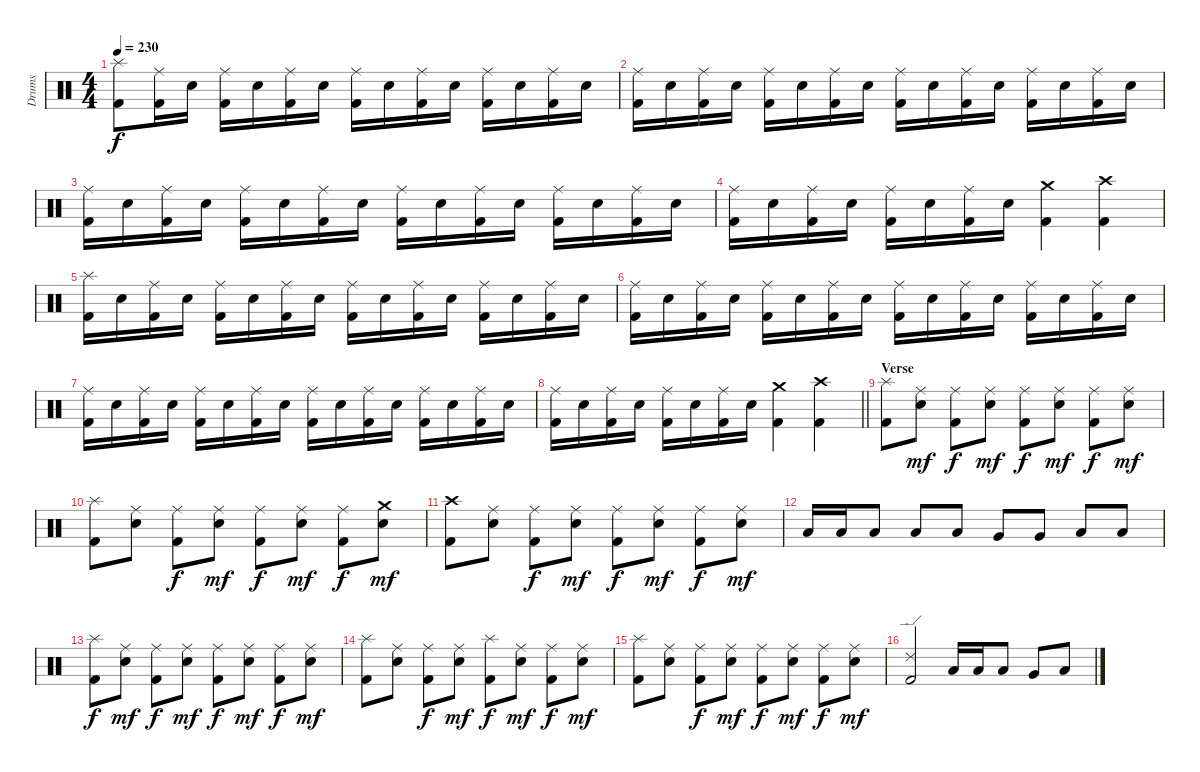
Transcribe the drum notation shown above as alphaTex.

\track ("Drums" "Drums") {instrument percussion}
\staff {score}
\articulation defaults
\ts (4 4)
\tempo 230
\clef neutral
\ks c
("Splash (hit)" "Kick (hit) 2").8{dy f} ("Ride (middle)" "Kick (hit) 2").16 "Snare (hit) 2".16 ("Ride (middle)" "Kick (hit) 2").16 "Snare (hit) 2".16 ("Ride (middle)" "Kick (hit) 2").16 "Snare (hit) 2".16 ("Ride (middle)" "Kick (hit) 2").16 "Snare (hit) 2".16 ("Ride (middle)" "Kick (hit) 2").16 "Snare (hit) 2".16 ("Ride (middle)" "Kick (hit) 2").16 "Snare (hit) 2".16 ("Ride (middle)" "Kick (hit) 2").16 "Snare (hit) 2".16 |
("Ride (middle)" "Kick (hit) 2").16 "Snare (hit) 2".16 ("Ride (middle)" "Kick (hit) 2").16 "Snare (hit) 2".16 ("Ride (middle)" "Kick (hit) 2").16 "Snare (hit) 2".16 ("Ride (middle)" "Kick (hit) 2").16 "Snare (hit) 2".16 ("Ride (middle)" "Kick (hit) 2").16 "Snare (hit) 2".16 ("Ride (middle)" "Kick (hit) 2").16 "Snare (hit) 2".16 ("Ride (middle)" "Kick (hit) 2").16 "Snare (hit) 2".16 ("Ride (middle)" "Kick (hit) 2").16 "Snare (hit) 2".16 |
("Ride (middle)" "Kick (hit) 2").16 "Snare (hit) 2".16 ("Ride (middle)" "Kick (hit) 2").16 "Snare (hit) 2".16 ("Ride (middle)" "Kick (hit) 2").16 "Snare (hit) 2".16 ("Ride (middle)" "Kick (hit) 2").16 "Snare (hit) 2".16 ("Ride (middle)" "Kick (hit) 2").16 "Snare (hit) 2".16 ("Ride (middle)" "Kick (hit) 2").16 "Snare (hit) 2".16 ("Ride (middle)" "Kick (hit) 2").16 "Snare (hit) 2".16 ("Ride (middle)" "Kick (hit) 2").16 "Snare (hit) 2".16 |
("Ride (middle)" "Kick (hit) 2").16 "Snare (hit) 2".16 ("Ride (middle)" "Kick (hit) 2").16 "Snare (hit) 2".16 ("Ride (middle)" "Kick (hit) 2").16 "Snare (hit) 2".16 ("Ride (middle)" "Kick (hit) 2").16 "Snare (hit) 2".16 ("Crash medium (hit)" "Kick (hit) 2").4 ("Crash high (hit)" "Kick (hit) 2").4 |
("Splash (hit)" "Kick (hit) 2").16 "Snare (hit) 2".16 ("Ride (middle)" "Kick (hit) 2").16 "Snare (hit) 2".16 ("Ride (middle)" "Kick (hit) 2").16 "Snare (hit) 2".16 ("Ride (middle)" "Kick (hit) 2").16 "Snare (hit) 2".16 ("Ride (middle)" "Kick (hit) 2").16 "Snare (hit) 2".16 ("Ride (middle)" "Kick (hit) 2").16 "Snare (hit) 2".16 ("Ride (middle)" "Kick (hit) 2").16 "Snare (hit) 2".16 ("Ride (middle)" "Kick (hit) 2").16 "Snare (hit) 2".16 |
("Ride (middle)" "Kick (hit) 2").16 "Snare (hit) 2".16 ("Ride (middle)" "Kick (hit) 2").16 "Snare (hit) 2".16 ("Ride (middle)" "Kick (hit) 2").16 "Snare (hit) 2".16 ("Ride (middle)" "Kick (hit) 2").16 "Snare (hit) 2".16 ("Ride (middle)" "Kick (hit) 2").16 "Snare (hit) 2".16 ("Ride (middle)" "Kick (hit) 2").16 "Snare (hit) 2".16 ("Ride (middle)" "Kick (hit) 2").16 "Snare (hit) 2".16 ("Ride (middle)" "Kick (hit) 2").16 "Snare (hit) 2".16 |
("Ride (middle)" "Kick (hit) 2").16 "Snare (hit) 2".16 ("Ride (middle)" "Kick (hit) 2").16 "Snare (hit) 2".16 ("Ride (middle)" "Kick (hit) 2").16 "Snare (hit) 2".16 ("Ride (middle)" "Kick (hit) 2").16 "Snare (hit) 2".16 ("Ride (middle)" "Kick (hit) 2").16 "Snare (hit) 2".16 ("Ride (middle)" "Kick (hit) 2").16 "Snare (hit) 2".16 ("Ride (middle)" "Kick (hit) 2").16 "Snare (hit) 2".16 ("Ride (middle)" "Kick (hit) 2").16 "Snare (hit) 2".16 |
\barLineRight lightlight
("Ride (middle)" "Kick (hit) 2").16 "Snare (hit) 2".16 ("Ride (middle)" "Kick (hit) 2").16 "Snare (hit) 2".16 ("Ride (middle)" "Kick (hit) 2").16 "Snare (hit) 2".16 ("Ride (middle)" "Kick (hit) 2").16 "Snare (hit) 2".16 ("Crash medium (hit)" "Kick (hit) 2").4 ("Crash high (hit)" "Kick (hit) 2").4 |
\section ("" "Verse")
("Splash (hit)" "Kick (hit) 2").8 ("Ride (middle)" "Snare (hit) 2").8{dy mf} ("Ride (middle)" "Kick (hit) 2").8{dy f} ("Ride (middle)" "Snare (hit) 2").8{dy mf} ("Ride (middle)" "Kick (hit) 2").8{dy f} ("Ride (middle)" "Snare (hit) 2").8{dy mf} ("Ride (middle)" "Kick (hit) 2").8{dy f} ("Ride (middle)" "Snare (hit) 2").8{dy mf} |
("Splash (hit)" "Kick (hit) 2").8 ("Ride (middle)" "Snare (hit) 2").8 ("Ride (middle)" "Kick (hit) 2").8{dy f} ("Ride (middle)" "Snare (hit) 2").8{dy mf} ("Ride (middle)" "Kick (hit) 2").8{dy f} ("Ride (middle)" "Snare (hit) 2").8{dy mf} ("Ride (middle)" "Kick (hit) 2").8{dy f} ("Crash medium (hit)" "Snare (hit) 2").8{dy mf} |
("Crash high (hit)" "Kick (hit) 2").8 ("Ride (middle)" "Snare (hit) 2").8 ("Ride (middle)" "Kick (hit) 2").8{dy f} ("Ride (middle)" "Snare (hit) 2").8{dy mf} ("Ride (middle)" "Kick (hit) 2").8{dy f} ("Ride (middle)" "Snare (hit) 2").8{dy mf} ("Ride (middle)" "Kick (hit) 2").8{dy f} ("Ride (middle)" "Snare (hit) 2").8{dy mf} |
"Low Tom (hit)".16 "Low Tom (hit)".16 "Low Tom (hit)".8 "Low Tom (hit)".8 "Low Tom (hit)".8 "Very Low Tom (hit)".8 "Very Low Tom (hit)".8 "Low Floor Tom (hit)".8 "Low Floor Tom (hit)".8 |
("Splash (hit)" "Kick (hit) 2").8{dy f} ("Ride (middle)" "Snare (hit) 2").8{dy mf} ("Ride (middle)" "Kick (hit) 2").8{dy f} ("Ride (middle)" "Snare (hit) 2").8{dy mf} ("Ride (middle)" "Kick (hit) 2").8{dy f} ("Ride (middle)" "Snare (hit) 2").8{dy mf} ("Ride (middle)" "Kick (hit) 2").8{dy f} ("Ride (middle)" "Snare (hit) 2").8{dy mf} |
("Splash (hit)" "Kick (hit) 2").8 ("Ride (middle)" "Snare (hit) 2").8 ("Ride (middle)" "Kick (hit) 2").8{dy f} ("Ride (middle)" "Snare (hit) 2").8{dy mf} ("Splash (hit)" "Kick (hit) 2").8{dy f} ("Ride (middle)" "Snare (hit) 2").8{dy mf} ("Ride (middle)" "Kick (hit) 2").8{dy f} ("Ride (middle)" "Snare (hit) 2").8{dy mf} |
("Splash (hit)" "Kick (hit) 2").8 ("Ride (middle)" "Snare (hit) 2").8 ("Ride (middle)" "Kick (hit) 2").8{dy f} ("Ride (middle)" "Snare (hit) 2").8{dy mf} ("Ride (middle)" "Kick (hit) 2").8{dy f} ("Ride (middle)" "Snare (hit) 2").8{dy mf} ("Ride (middle)" "Kick (hit) 2").8{dy f} ("Ride (middle)" "Snare (hit) 2").8{dy mf} |
("Ride (edge) 2" "Kick (hit) 2").2 "Low Tom (hit)".16 "Low Tom (hit)".16 "Low Tom (hit)".8 "Very Low Tom (hit)".8 "Low Floor Tom (hit)".8
